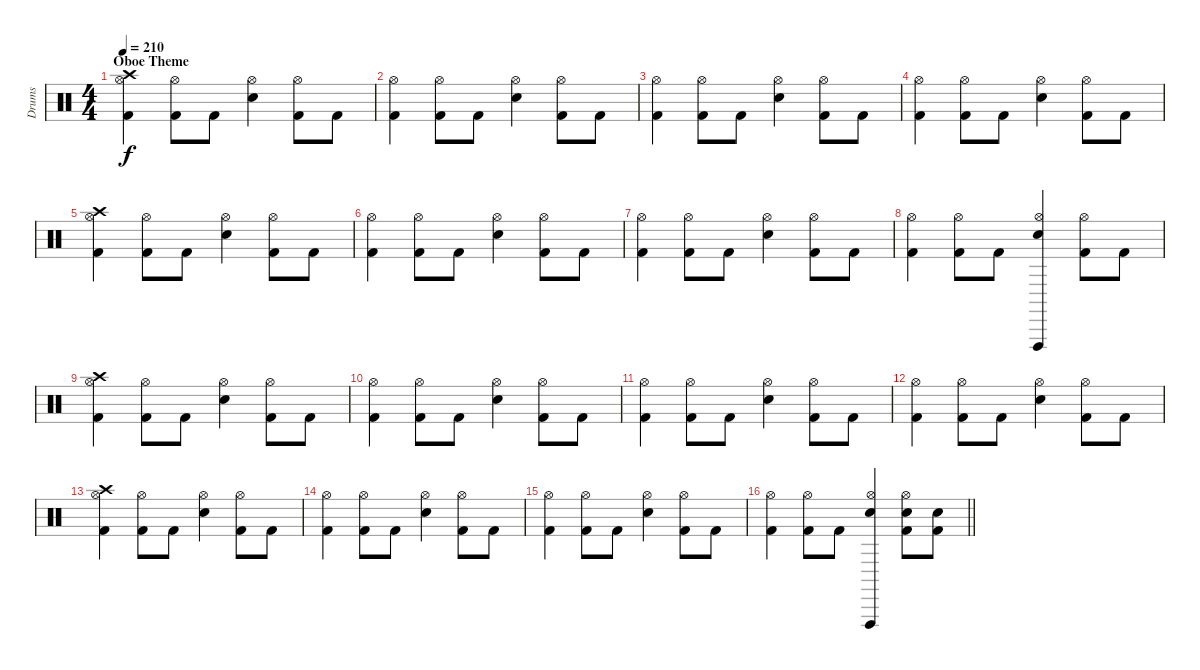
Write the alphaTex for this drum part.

\track ("Drums" "Drums") {instrument percussion}
\staff {score}
\articulation defaults
\ts (4 4)
\section ("" "Oboe Theme")
\tempo 210
\clef neutral
\ks c
("Crash high (hit)" "Hi-Hat (open)" "Kick (hit) 2").4{dy f} ("Hi-Hat (open)" "Kick (hit) 2").8 "Kick (hit) 2".8 ("Hi-Hat (open)" "Snare (hit) 2").4 ("Hi-Hat (open)" "Kick (hit) 2").8 "Kick (hit) 2".8 |
("Hi-Hat (open)" "Kick (hit) 2").4 ("Hi-Hat (open)" "Kick (hit) 2").8 "Kick (hit) 2".8 ("Hi-Hat (open)" "Snare (hit) 2").4 ("Hi-Hat (open)" "Kick (hit) 2").8 "Kick (hit) 2".8 |
("Hi-Hat (open)" "Kick (hit) 2").4 ("Hi-Hat (open)" "Kick (hit) 2").8 "Kick (hit) 2".8 ("Hi-Hat (open)" "Snare (hit) 2").4 ("Hi-Hat (open)" "Kick (hit) 2").8 "Kick (hit) 2".8 |
("Hi-Hat (open)" "Kick (hit) 2").4 ("Hi-Hat (open)" "Kick (hit) 2").8 "Kick (hit) 2".8 ("Hi-Hat (open)" "Snare (hit) 2").4 ("Hi-Hat (open)" "Kick (hit) 2").8 "Kick (hit) 2".8 |
("Crash high (hit)" "Hi-Hat (open)" "Kick (hit) 2").4 ("Hi-Hat (open)" "Kick (hit) 2").8 "Kick (hit) 2".8 ("Hi-Hat (open)" "Snare (hit) 2").4 ("Hi-Hat (open)" "Kick (hit) 2").8 "Kick (hit) 2".8 |
("Hi-Hat (open)" "Kick (hit) 2").4 ("Hi-Hat (open)" "Kick (hit) 2").8 "Kick (hit) 2".8 ("Hi-Hat (open)" "Snare (hit) 2").4 ("Hi-Hat (open)" "Kick (hit) 2").8 "Kick (hit) 2".8 |
("Hi-Hat (open)" "Kick (hit) 2").4 ("Hi-Hat (open)" "Kick (hit) 2").8 "Kick (hit) 2".8 ("Hi-Hat (open)" "Snare (hit) 2").4 ("Hi-Hat (open)" "Kick (hit) 2").8 "Kick (hit) 2".8 |
("Hi-Hat (open)" "Kick (hit) 2").4 ("Hi-Hat (open)" "Kick (hit) 2").8 "Kick (hit) 2".8 ("Vibraslap (hit)" "Hi-Hat (open)" "Snare (hit) 2").4 ("Hi-Hat (open)" "Kick (hit) 2").8 "Kick (hit) 2".8 |
("Crash high (hit)" "Hi-Hat (open)" "Kick (hit) 2").4 ("Hi-Hat (open)" "Kick (hit) 2").8 "Kick (hit) 2".8 ("Hi-Hat (open)" "Snare (hit) 2").4 ("Hi-Hat (open)" "Kick (hit) 2").8 "Kick (hit) 2".8 |
("Hi-Hat (open)" "Kick (hit) 2").4 ("Hi-Hat (open)" "Kick (hit) 2").8 "Kick (hit) 2".8 ("Hi-Hat (open)" "Snare (hit) 2").4 ("Hi-Hat (open)" "Kick (hit) 2").8 "Kick (hit) 2".8 |
("Hi-Hat (open)" "Kick (hit) 2").4 ("Hi-Hat (open)" "Kick (hit) 2").8 "Kick (hit) 2".8 ("Hi-Hat (open)" "Snare (hit) 2").4 ("Hi-Hat (open)" "Kick (hit) 2").8 "Kick (hit) 2".8 |
("Hi-Hat (open)" "Kick (hit) 2").4 ("Hi-Hat (open)" "Kick (hit) 2").8 "Kick (hit) 2".8 ("Hi-Hat (open)" "Snare (hit) 2").4 ("Hi-Hat (open)" "Kick (hit) 2").8 "Kick (hit) 2".8 |
("Crash high (hit)" "Hi-Hat (open)" "Kick (hit) 2").4 ("Hi-Hat (open)" "Kick (hit) 2").8 "Kick (hit) 2".8 ("Hi-Hat (open)" "Snare (hit) 2").4 ("Hi-Hat (open)" "Kick (hit) 2").8 "Kick (hit) 2".8 |
("Hi-Hat (open)" "Kick (hit) 2").4 ("Hi-Hat (open)" "Kick (hit) 2").8 "Kick (hit) 2".8 ("Hi-Hat (open)" "Snare (hit) 2").4 ("Hi-Hat (open)" "Kick (hit) 2").8 "Kick (hit) 2".8 |
("Hi-Hat (open)" "Kick (hit) 2").4 ("Hi-Hat (open)" "Kick (hit) 2").8 "Kick (hit) 2".8 ("Hi-Hat (open)" "Snare (hit) 2").4 ("Hi-Hat (open)" "Kick (hit) 2").8 "Kick (hit) 2".8 |
\barLineRight lightlight
("Hi-Hat (open)" "Kick (hit) 2").4 ("Hi-Hat (open)" "Kick (hit) 2").8 "Kick (hit) 2".8 ("Vibraslap (hit)" "Hi-Hat (open)" "Snare (hit) 2").4 ("Hi-Hat (open)" "Snare (hit) 2" "Kick (hit) 2").8 ("Snare (hit) 2" "Kick (hit) 2").8
